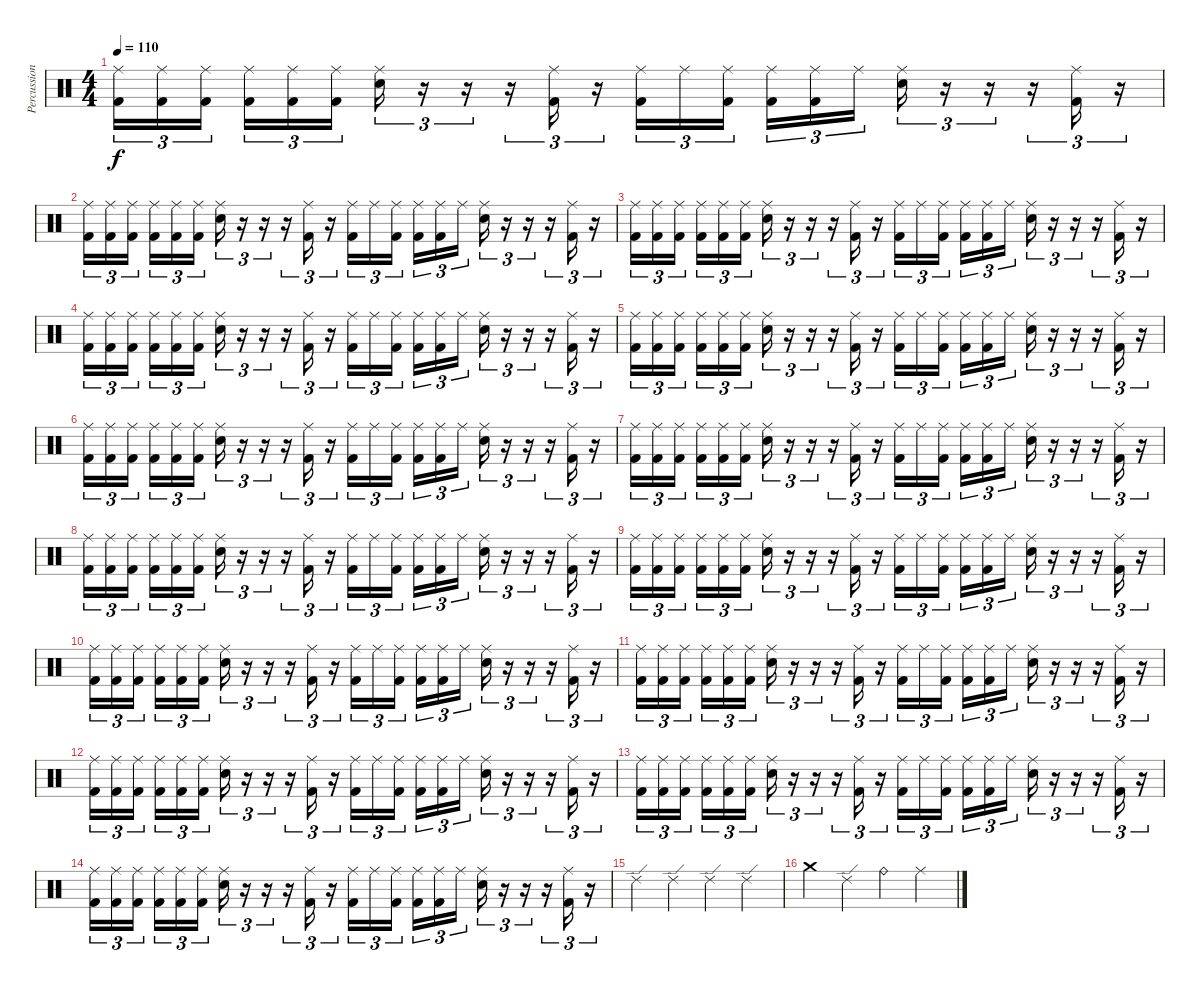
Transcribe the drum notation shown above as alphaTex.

\track ("Percussion" "Percussion") {instrument percussion}
\staff {score}
\articulation defaults
\ts (4 4)
\tempo 110
\clef neutral
\ks c
("Ride (middle)" "Kick (hit) 2").16{tu (3 2) dy f} ("Ride (middle)" "Kick (hit) 2").16{tu (3 2)} ("Ride (middle)" "Kick (hit) 2").16{tu (3 2)} ("Ride (middle)" "Kick (hit) 2").16{tu (3 2)} ("Ride (middle)" "Kick (hit) 2").16{tu (3 2)} ("Ride (middle)" "Kick (hit) 2").16{tu (3 2)} ("Ride (middle)" "Electric Snare (hit)").16{tu (3 2)} r.16{tu (3 2)} r.16{tu (3 2)} r.16{tu (3 2)} ("Ride (middle)" "Kick (hit) 2").16{tu (3 2)} r.16{tu (3 2)} ("Ride (middle)" "Kick (hit) 2").16{tu (3 2)} "Ride (middle)".16{tu (3 2)} ("Ride (middle)" "Kick (hit) 2").16{tu (3 2)} ("Ride (middle)" "Kick (hit) 2").16{tu (3 2)} ("Ride (middle)" "Kick (hit) 2").16{tu (3 2)} "Ride (middle)".16{tu (3 2)} ("Ride (middle)" "Electric Snare (hit)").16{tu (3 2)} r.16{tu (3 2)} r.16{tu (3 2)} r.16{tu (3 2)} ("Ride (middle)" "Kick (hit) 2").16{tu (3 2)} r.16{tu (3 2)} |
("Ride (middle)" "Kick (hit) 2").16{tu (3 2)} ("Ride (middle)" "Kick (hit) 2").16{tu (3 2)} ("Ride (middle)" "Kick (hit) 2").16{tu (3 2)} ("Ride (middle)" "Kick (hit) 2").16{tu (3 2)} ("Ride (middle)" "Kick (hit) 2").16{tu (3 2)} ("Ride (middle)" "Kick (hit) 2").16{tu (3 2)} ("Ride (middle)" "Electric Snare (hit)").16{tu (3 2)} r.16{tu (3 2)} r.16{tu (3 2)} r.16{tu (3 2)} ("Ride (middle)" "Kick (hit) 2").16{tu (3 2)} r.16{tu (3 2)} ("Ride (middle)" "Kick (hit) 2").16{tu (3 2)} "Ride (middle)".16{tu (3 2)} ("Ride (middle)" "Kick (hit) 2").16{tu (3 2)} ("Ride (middle)" "Kick (hit) 2").16{tu (3 2)} ("Ride (middle)" "Kick (hit) 2").16{tu (3 2)} "Ride (middle)".16{tu (3 2)} ("Ride (middle)" "Electric Snare (hit)").16{tu (3 2)} r.16{tu (3 2)} r.16{tu (3 2)} r.16{tu (3 2)} ("Ride (middle)" "Kick (hit) 2").16{tu (3 2)} r.16{tu (3 2)} |
("Ride (middle)" "Kick (hit) 2").16{tu (3 2)} ("Ride (middle)" "Kick (hit) 2").16{tu (3 2)} ("Ride (middle)" "Kick (hit) 2").16{tu (3 2)} ("Ride (middle)" "Kick (hit) 2").16{tu (3 2)} ("Ride (middle)" "Kick (hit) 2").16{tu (3 2)} ("Ride (middle)" "Kick (hit) 2").16{tu (3 2)} ("Ride (middle)" "Electric Snare (hit)").16{tu (3 2)} r.16{tu (3 2)} r.16{tu (3 2)} r.16{tu (3 2)} ("Ride (middle)" "Kick (hit) 2").16{tu (3 2)} r.16{tu (3 2)} ("Ride (middle)" "Kick (hit) 2").16{tu (3 2)} "Ride (middle)".16{tu (3 2)} ("Ride (middle)" "Kick (hit) 2").16{tu (3 2)} ("Ride (middle)" "Kick (hit) 2").16{tu (3 2)} ("Ride (middle)" "Kick (hit) 2").16{tu (3 2)} "Ride (middle)".16{tu (3 2)} ("Ride (middle)" "Electric Snare (hit)").16{tu (3 2)} r.16{tu (3 2)} r.16{tu (3 2)} r.16{tu (3 2)} ("Ride (middle)" "Kick (hit) 2").16{tu (3 2)} r.16{tu (3 2)} |
("Ride (middle)" "Kick (hit) 2").16{tu (3 2)} ("Ride (middle)" "Kick (hit) 2").16{tu (3 2)} ("Ride (middle)" "Kick (hit) 2").16{tu (3 2)} ("Ride (middle)" "Kick (hit) 2").16{tu (3 2)} ("Ride (middle)" "Kick (hit) 2").16{tu (3 2)} ("Ride (middle)" "Kick (hit) 2").16{tu (3 2)} ("Ride (middle)" "Electric Snare (hit)").16{tu (3 2)} r.16{tu (3 2)} r.16{tu (3 2)} r.16{tu (3 2)} ("Ride (middle)" "Kick (hit) 2").16{tu (3 2)} r.16{tu (3 2)} ("Ride (middle)" "Kick (hit) 2").16{tu (3 2)} "Ride (middle)".16{tu (3 2)} ("Ride (middle)" "Kick (hit) 2").16{tu (3 2)} ("Ride (middle)" "Kick (hit) 2").16{tu (3 2)} ("Ride (middle)" "Kick (hit) 2").16{tu (3 2)} "Ride (middle)".16{tu (3 2)} ("Ride (middle)" "Electric Snare (hit)").16{tu (3 2)} r.16{tu (3 2)} r.16{tu (3 2)} r.16{tu (3 2)} ("Ride (middle)" "Kick (hit) 2").16{tu (3 2)} r.16{tu (3 2)} |
("Ride (middle)" "Kick (hit) 2").16{tu (3 2)} ("Ride (middle)" "Kick (hit) 2").16{tu (3 2)} ("Ride (middle)" "Kick (hit) 2").16{tu (3 2)} ("Ride (middle)" "Kick (hit) 2").16{tu (3 2)} ("Ride (middle)" "Kick (hit) 2").16{tu (3 2)} ("Ride (middle)" "Kick (hit) 2").16{tu (3 2)} ("Ride (middle)" "Electric Snare (hit)").16{tu (3 2)} r.16{tu (3 2)} r.16{tu (3 2)} r.16{tu (3 2)} ("Ride (middle)" "Kick (hit) 2").16{tu (3 2)} r.16{tu (3 2)} ("Ride (middle)" "Kick (hit) 2").16{tu (3 2)} "Ride (middle)".16{tu (3 2)} ("Ride (middle)" "Kick (hit) 2").16{tu (3 2)} ("Ride (middle)" "Kick (hit) 2").16{tu (3 2)} ("Ride (middle)" "Kick (hit) 2").16{tu (3 2)} "Ride (middle)".16{tu (3 2)} ("Ride (middle)" "Electric Snare (hit)").16{tu (3 2)} r.16{tu (3 2)} r.16{tu (3 2)} r.16{tu (3 2)} ("Ride (middle)" "Kick (hit) 2").16{tu (3 2)} r.16{tu (3 2)} |
("Ride (middle)" "Kick (hit) 2").16{tu (3 2)} ("Ride (middle)" "Kick (hit) 2").16{tu (3 2)} ("Ride (middle)" "Kick (hit) 2").16{tu (3 2)} ("Ride (middle)" "Kick (hit) 2").16{tu (3 2)} ("Ride (middle)" "Kick (hit) 2").16{tu (3 2)} ("Ride (middle)" "Kick (hit) 2").16{tu (3 2)} ("Ride (middle)" "Electric Snare (hit)").16{tu (3 2)} r.16{tu (3 2)} r.16{tu (3 2)} r.16{tu (3 2)} ("Ride (middle)" "Kick (hit) 2").16{tu (3 2)} r.16{tu (3 2)} ("Ride (middle)" "Kick (hit) 2").16{tu (3 2)} "Ride (middle)".16{tu (3 2)} ("Ride (middle)" "Kick (hit) 2").16{tu (3 2)} ("Ride (middle)" "Kick (hit) 2").16{tu (3 2)} ("Ride (middle)" "Kick (hit) 2").16{tu (3 2)} "Ride (middle)".16{tu (3 2)} ("Ride (middle)" "Electric Snare (hit)").16{tu (3 2)} r.16{tu (3 2)} r.16{tu (3 2)} r.16{tu (3 2)} ("Ride (middle)" "Kick (hit) 2").16{tu (3 2)} r.16{tu (3 2)} |
("Ride (middle)" "Kick (hit) 2").16{tu (3 2)} ("Ride (middle)" "Kick (hit) 2").16{tu (3 2)} ("Ride (middle)" "Kick (hit) 2").16{tu (3 2)} ("Ride (middle)" "Kick (hit) 2").16{tu (3 2)} ("Ride (middle)" "Kick (hit) 2").16{tu (3 2)} ("Ride (middle)" "Kick (hit) 2").16{tu (3 2)} ("Ride (middle)" "Electric Snare (hit)").16{tu (3 2)} r.16{tu (3 2)} r.16{tu (3 2)} r.16{tu (3 2)} ("Ride (middle)" "Kick (hit) 2").16{tu (3 2)} r.16{tu (3 2)} ("Ride (middle)" "Kick (hit) 2").16{tu (3 2)} "Ride (middle)".16{tu (3 2)} ("Ride (middle)" "Kick (hit) 2").16{tu (3 2)} ("Ride (middle)" "Kick (hit) 2").16{tu (3 2)} ("Ride (middle)" "Kick (hit) 2").16{tu (3 2)} "Ride (middle)".16{tu (3 2)} ("Ride (middle)" "Electric Snare (hit)").16{tu (3 2)} r.16{tu (3 2)} r.16{tu (3 2)} r.16{tu (3 2)} ("Ride (middle)" "Kick (hit) 2").16{tu (3 2)} r.16{tu (3 2)} |
("Ride (middle)" "Kick (hit) 2").16{tu (3 2)} ("Ride (middle)" "Kick (hit) 2").16{tu (3 2)} ("Ride (middle)" "Kick (hit) 2").16{tu (3 2)} ("Ride (middle)" "Kick (hit) 2").16{tu (3 2)} ("Ride (middle)" "Kick (hit) 2").16{tu (3 2)} ("Ride (middle)" "Kick (hit) 2").16{tu (3 2)} ("Ride (middle)" "Electric Snare (hit)").16{tu (3 2)} r.16{tu (3 2)} r.16{tu (3 2)} r.16{tu (3 2)} ("Ride (middle)" "Kick (hit) 2").16{tu (3 2)} r.16{tu (3 2)} ("Ride (middle)" "Kick (hit) 2").16{tu (3 2)} "Ride (middle)".16{tu (3 2)} ("Ride (middle)" "Kick (hit) 2").16{tu (3 2)} ("Ride (middle)" "Kick (hit) 2").16{tu (3 2)} ("Ride (middle)" "Kick (hit) 2").16{tu (3 2)} "Ride (middle)".16{tu (3 2)} ("Ride (middle)" "Electric Snare (hit)").16{tu (3 2)} r.16{tu (3 2)} r.16{tu (3 2)} r.16{tu (3 2)} ("Ride (middle)" "Kick (hit) 2").16{tu (3 2)} r.16{tu (3 2)} |
("Ride (middle)" "Kick (hit) 2").16{tu (3 2)} ("Ride (middle)" "Kick (hit) 2").16{tu (3 2)} ("Ride (middle)" "Kick (hit) 2").16{tu (3 2)} ("Ride (middle)" "Kick (hit) 2").16{tu (3 2)} ("Ride (middle)" "Kick (hit) 2").16{tu (3 2)} ("Ride (middle)" "Kick (hit) 2").16{tu (3 2)} ("Ride (middle)" "Electric Snare (hit)").16{tu (3 2)} r.16{tu (3 2)} r.16{tu (3 2)} r.16{tu (3 2)} ("Ride (middle)" "Kick (hit) 2").16{tu (3 2)} r.16{tu (3 2)} ("Ride (middle)" "Kick (hit) 2").16{tu (3 2)} "Ride (middle)".16{tu (3 2)} ("Ride (middle)" "Kick (hit) 2").16{tu (3 2)} ("Ride (middle)" "Kick (hit) 2").16{tu (3 2)} ("Ride (middle)" "Kick (hit) 2").16{tu (3 2)} "Ride (middle)".16{tu (3 2)} ("Ride (middle)" "Electric Snare (hit)").16{tu (3 2)} r.16{tu (3 2)} r.16{tu (3 2)} r.16{tu (3 2)} ("Ride (middle)" "Kick (hit) 2").16{tu (3 2)} r.16{tu (3 2)} |
("Ride (middle)" "Kick (hit) 2").16{tu (3 2)} ("Ride (middle)" "Kick (hit) 2").16{tu (3 2)} ("Ride (middle)" "Kick (hit) 2").16{tu (3 2)} ("Ride (middle)" "Kick (hit) 2").16{tu (3 2)} ("Ride (middle)" "Kick (hit) 2").16{tu (3 2)} ("Ride (middle)" "Kick (hit) 2").16{tu (3 2)} ("Ride (middle)" "Electric Snare (hit)").16{tu (3 2)} r.16{tu (3 2)} r.16{tu (3 2)} r.16{tu (3 2)} ("Ride (middle)" "Kick (hit) 2").16{tu (3 2)} r.16{tu (3 2)} ("Ride (middle)" "Kick (hit) 2").16{tu (3 2)} "Ride (middle)".16{tu (3 2)} ("Ride (middle)" "Kick (hit) 2").16{tu (3 2)} ("Ride (middle)" "Kick (hit) 2").16{tu (3 2)} ("Ride (middle)" "Kick (hit) 2").16{tu (3 2)} "Ride (middle)".16{tu (3 2)} ("Ride (middle)" "Electric Snare (hit)").16{tu (3 2)} r.16{tu (3 2)} r.16{tu (3 2)} r.16{tu (3 2)} ("Ride (middle)" "Kick (hit) 2").16{tu (3 2)} r.16{tu (3 2)} |
("Ride (middle)" "Kick (hit) 2").16{tu (3 2)} ("Ride (middle)" "Kick (hit) 2").16{tu (3 2)} ("Ride (middle)" "Kick (hit) 2").16{tu (3 2)} ("Ride (middle)" "Kick (hit) 2").16{tu (3 2)} ("Ride (middle)" "Kick (hit) 2").16{tu (3 2)} ("Ride (middle)" "Kick (hit) 2").16{tu (3 2)} ("Ride (middle)" "Electric Snare (hit)").16{tu (3 2)} r.16{tu (3 2)} r.16{tu (3 2)} r.16{tu (3 2)} ("Ride (middle)" "Kick (hit) 2").16{tu (3 2)} r.16{tu (3 2)} ("Ride (middle)" "Kick (hit) 2").16{tu (3 2)} "Ride (middle)".16{tu (3 2)} ("Ride (middle)" "Kick (hit) 2").16{tu (3 2)} ("Ride (middle)" "Kick (hit) 2").16{tu (3 2)} ("Ride (middle)" "Kick (hit) 2").16{tu (3 2)} "Ride (middle)".16{tu (3 2)} ("Ride (middle)" "Electric Snare (hit)").16{tu (3 2)} r.16{tu (3 2)} r.16{tu (3 2)} r.16{tu (3 2)} ("Ride (middle)" "Kick (hit) 2").16{tu (3 2)} r.16{tu (3 2)} |
("Ride (middle)" "Kick (hit) 2").16{tu (3 2)} ("Ride (middle)" "Kick (hit) 2").16{tu (3 2)} ("Ride (middle)" "Kick (hit) 2").16{tu (3 2)} ("Ride (middle)" "Kick (hit) 2").16{tu (3 2)} ("Ride (middle)" "Kick (hit) 2").16{tu (3 2)} ("Ride (middle)" "Kick (hit) 2").16{tu (3 2)} ("Ride (middle)" "Electric Snare (hit)").16{tu (3 2)} r.16{tu (3 2)} r.16{tu (3 2)} r.16{tu (3 2)} ("Ride (middle)" "Kick (hit) 2").16{tu (3 2)} r.16{tu (3 2)} ("Ride (middle)" "Kick (hit) 2").16{tu (3 2)} "Ride (middle)".16{tu (3 2)} ("Ride (middle)" "Kick (hit) 2").16{tu (3 2)} ("Ride (middle)" "Kick (hit) 2").16{tu (3 2)} ("Ride (middle)" "Kick (hit) 2").16{tu (3 2)} "Ride (middle)".16{tu (3 2)} ("Ride (middle)" "Electric Snare (hit)").16{tu (3 2)} r.16{tu (3 2)} r.16{tu (3 2)} r.16{tu (3 2)} ("Ride (middle)" "Kick (hit) 2").16{tu (3 2)} r.16{tu (3 2)} |
("Ride (middle)" "Kick (hit) 2").16{tu (3 2)} ("Ride (middle)" "Kick (hit) 2").16{tu (3 2)} ("Ride (middle)" "Kick (hit) 2").16{tu (3 2)} ("Ride (middle)" "Kick (hit) 2").16{tu (3 2)} ("Ride (middle)" "Kick (hit) 2").16{tu (3 2)} ("Ride (middle)" "Kick (hit) 2").16{tu (3 2)} ("Ride (middle)" "Electric Snare (hit)").16{tu (3 2)} r.16{tu (3 2)} r.16{tu (3 2)} r.16{tu (3 2)} ("Ride (middle)" "Kick (hit) 2").16{tu (3 2)} r.16{tu (3 2)} ("Ride (middle)" "Kick (hit) 2").16{tu (3 2)} "Ride (middle)".16{tu (3 2)} ("Ride (middle)" "Kick (hit) 2").16{tu (3 2)} ("Ride (middle)" "Kick (hit) 2").16{tu (3 2)} ("Ride (middle)" "Kick (hit) 2").16{tu (3 2)} "Ride (middle)".16{tu (3 2)} ("Ride (middle)" "Electric Snare (hit)").16{tu (3 2)} r.16{tu (3 2)} r.16{tu (3 2)} r.16{tu (3 2)} ("Ride (middle)" "Kick (hit) 2").16{tu (3 2)} r.16{tu (3 2)} |
("Ride (middle)" "Kick (hit) 2").16{tu (3 2)} ("Ride (middle)" "Kick (hit) 2").16{tu (3 2)} ("Ride (middle)" "Kick (hit) 2").16{tu (3 2)} ("Ride (middle)" "Kick (hit) 2").16{tu (3 2)} ("Ride (middle)" "Kick (hit) 2").16{tu (3 2)} ("Ride (middle)" "Kick (hit) 2").16{tu (3 2)} ("Ride (middle)" "Electric Snare (hit)").16{tu (3 2)} r.16{tu (3 2)} r.16{tu (3 2)} r.16{tu (3 2)} ("Ride (middle)" "Kick (hit) 2").16{tu (3 2)} r.16{tu (3 2)} ("Ride (middle)" "Kick (hit) 2").16{tu (3 2)} "Ride (middle)".16{tu (3 2)} ("Ride (middle)" "Kick (hit) 2").16{tu (3 2)} ("Ride (middle)" "Kick (hit) 2").16{tu (3 2)} ("Ride (middle)" "Kick (hit) 2").16{tu (3 2)} "Ride (middle)".16{tu (3 2)} ("Ride (middle)" "Electric Snare (hit)").16{tu (3 2)} r.16{tu (3 2)} r.16{tu (3 2)} r.16{tu (3 2)} ("Ride (middle)" "Kick (hit) 2").16{tu (3 2)} r.16{tu (3 2)} |
"Ride (edge) 2".4 "Ride (edge) 2".4 "Ride (edge) 2".4 "Ride (edge) 2".4 |
"Crash medium (hit)".4 "Ride (edge) 2".4 "Ride (bell)".4 "Ride (middle)".4
